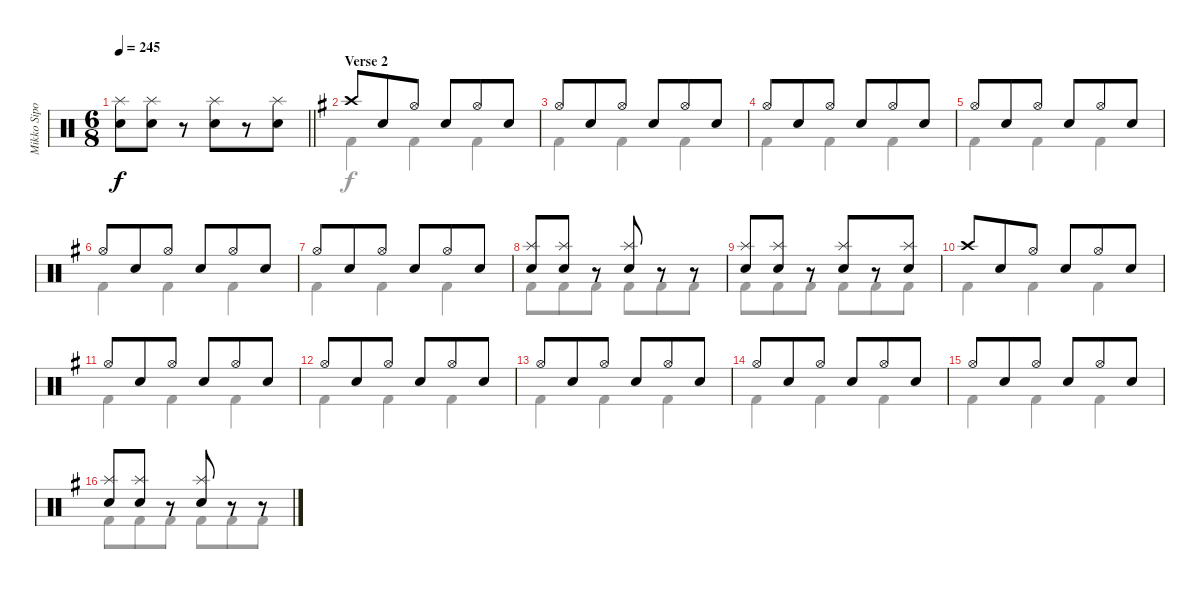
\track ("Mikko Sipola (drums)" "Mikko Sipo") {instrument percussion}
\staff {score}
\articulation defaults
\voice
\ts (6 8)
\tempo 245
\clef neutral
\barLineRight lightlight
\ks aminor
("Splash (hit)" "Electric Snare (hit)").8{dy f} ("Splash (hit)" "Electric Snare (hit)").8 r.8 ("Splash (hit)" "Electric Snare (hit)").8 r.8 ("Splash (hit)" "Electric Snare (hit)").8 |
\section ("" "Verse 2")
\ks eminor "Crash high (hit)".8 "Electric Snare (hit)".8 "Hi-Hat (open)".8 "Electric Snare (hit)".8 "Hi-Hat (open)".8 "Electric Snare (hit)".8
|
"Hi-Hat (open)".8 "Electric Snare (hit)".8 "Hi-Hat (open)".8 "Electric Snare (hit)".8 "Hi-Hat (open)".8 "Electric Snare (hit)".8 |
"Hi-Hat (open)".8 "Electric Snare (hit)".8 "Hi-Hat (open)".8 "Electric Snare (hit)".8 "Hi-Hat (open)".8 "Electric Snare (hit)".8 |
"Hi-Hat (open)".8 "Electric Snare (hit)".8 "Hi-Hat (open)".8 "Electric Snare (hit)".8 "Hi-Hat (open)".8 "Electric Snare (hit)".8 |
"Hi-Hat (open)".8 "Electric Snare (hit)".8 "Hi-Hat (open)".8 "Electric Snare (hit)".8 "Hi-Hat (open)".8 "Electric Snare (hit)".8 |
"Hi-Hat (open)".8 "Electric Snare (hit)".8 "Hi-Hat (open)".8 "Electric Snare (hit)".8 "Hi-Hat (open)".8 "Electric Snare (hit)".8 |
("Splash (hit)" "Electric Snare (hit)").8 ("Splash (hit)" "Electric Snare (hit)").8 r.8 ("Splash (hit)" "Electric Snare (hit)").8 r.8 r.8 |
("Splash (hit)" "Electric Snare (hit)").8 ("Splash (hit)" "Electric Snare (hit)").8 r.8 ("Splash (hit)" "Electric Snare (hit)").8 r.8 ("Splash (hit)" "Electric Snare (hit)").8 |
"Crash high (hit)".8 "Electric Snare (hit)".8 "Hi-Hat (open)".8 "Electric Snare (hit)".8 "Hi-Hat (open)".8 "Electric Snare (hit)".8 |
"Hi-Hat (open)".8 "Electric Snare (hit)".8 "Hi-Hat (open)".8 "Electric Snare (hit)".8 "Hi-Hat (open)".8 "Electric Snare (hit)".8 |
"Hi-Hat (open)".8 "Electric Snare (hit)".8 "Hi-Hat (open)".8 "Electric Snare (hit)".8 "Hi-Hat (open)".8 "Electric Snare (hit)".8 |
"Hi-Hat (open)".8 "Electric Snare (hit)".8 "Hi-Hat (open)".8 "Electric Snare (hit)".8 "Hi-Hat (open)".8 "Electric Snare (hit)".8 |
"Hi-Hat (open)".8 "Electric Snare (hit)".8 "Hi-Hat (open)".8 "Electric Snare (hit)".8 "Hi-Hat (open)".8 "Electric Snare (hit)".8 |
"Hi-Hat (open)".8 "Electric Snare (hit)".8 "Hi-Hat (open)".8 "Electric Snare (hit)".8 "Hi-Hat (open)".8 "Electric Snare (hit)".8 |
("Splash (hit)" "Electric Snare (hit)").8 ("Splash (hit)" "Electric Snare (hit)").8 r.8 ("Splash (hit)" "Electric Snare (hit)").8 r.8 r.8
\voice
\clef neutral
\ottava regular
\simile none
\barLineRight lightlight
\ks aminor
|
\ks eminor "Kick (hit) 2".4 "Kick (hit) 2".4 "Kick (hit) 2".4
|
"Kick (hit) 2".4 "Kick (hit) 2".4 "Kick (hit) 2".4 |
"Kick (hit) 2".4 "Kick (hit) 2".4 "Kick (hit) 2".4 |
"Kick (hit) 2".4 "Kick (hit) 2".4 "Kick (hit) 2".4 |
"Kick (hit) 2".4 "Kick (hit) 2".4 "Kick (hit) 2".4 |
"Kick (hit) 2".4 "Kick (hit) 2".4 "Kick (hit) 2".4 |
"Kick (hit) 2".8 "Kick (hit) 2".8 "Kick (hit) 2".8 "Kick (hit) 2".8 "Kick (hit) 2".8 "Kick (hit) 2".8 |
"Kick (hit) 2".8 "Kick (hit) 2".8 "Kick (hit) 2".8 "Kick (hit) 2".8 "Kick (hit) 2".8 "Kick (hit) 2".8 |
"Kick (hit) 2".4 "Kick (hit) 2".4 "Kick (hit) 2".4 |
"Kick (hit) 2".4 "Kick (hit) 2".4 "Kick (hit) 2".4 |
"Kick (hit) 2".4 "Kick (hit) 2".4 "Kick (hit) 2".4 |
"Kick (hit) 2".4 "Kick (hit) 2".4 "Kick (hit) 2".4 |
"Kick (hit) 2".4 "Kick (hit) 2".4 "Kick (hit) 2".4 |
"Kick (hit) 2".4 "Kick (hit) 2".4 "Kick (hit) 2".4 |
"Kick (hit) 2".8 "Kick (hit) 2".8 "Kick (hit) 2".8 "Kick (hit) 2".8 "Kick (hit) 2".8 "Kick (hit) 2".8
